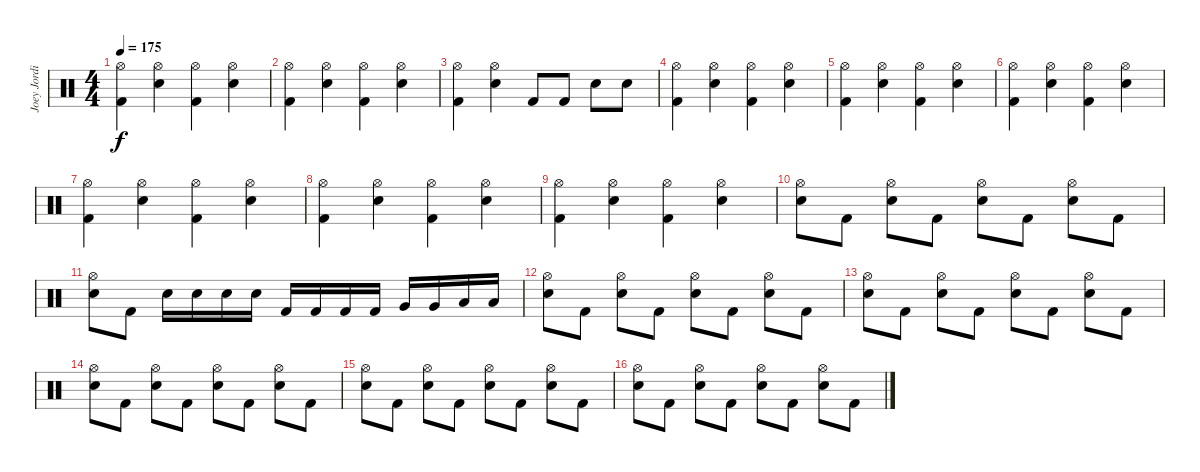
\track ("Joey Jordison (Drums)" "Joey Jordi") {instrument percussion}
\staff {score}
\articulation defaults
\ts (4 4)
\tempo 175
\clef neutral
\ks c
("Hi-Hat (open)" "Kick (hit) 2").4{dy f} ("Hi-Hat (open)" "Electric Snare (hit)").4 ("Hi-Hat (open)" "Kick (hit) 2").4 ("Hi-Hat (open)" "Electric Snare (hit)").4 |
("Hi-Hat (open)" "Kick (hit) 2").4 ("Hi-Hat (open)" "Electric Snare (hit)").4 ("Hi-Hat (open)" "Kick (hit) 2").4 ("Hi-Hat (open)" "Electric Snare (hit)").4 |
("Hi-Hat (open)" "Kick (hit) 2").4 ("Hi-Hat (open)" "Electric Snare (hit)").4 "Kick (hit) 2".8 "Kick (hit) 2".8 "Electric Snare (hit)".8 "Electric Snare (hit)".8 |
("Hi-Hat (open)" "Kick (hit) 2").4 ("Hi-Hat (open)" "Electric Snare (hit)").4 ("Hi-Hat (open)" "Kick (hit) 2").4 ("Hi-Hat (open)" "Electric Snare (hit)").4 |
("Hi-Hat (open)" "Kick (hit) 2").4 ("Hi-Hat (open)" "Electric Snare (hit)").4 ("Hi-Hat (open)" "Kick (hit) 2").4 ("Hi-Hat (open)" "Electric Snare (hit)").4 |
("Hi-Hat (open)" "Kick (hit) 2").4 ("Hi-Hat (open)" "Electric Snare (hit)").4 ("Hi-Hat (open)" "Kick (hit) 2").4 ("Hi-Hat (open)" "Electric Snare (hit)").4 |
("Hi-Hat (open)" "Kick (hit) 2").4 ("Hi-Hat (open)" "Electric Snare (hit)").4 ("Hi-Hat (open)" "Kick (hit) 2").4 ("Hi-Hat (open)" "Electric Snare (hit)").4 |
("Hi-Hat (open)" "Kick (hit) 2").4 ("Hi-Hat (open)" "Electric Snare (hit)").4 ("Hi-Hat (open)" "Kick (hit) 2").4 ("Hi-Hat (open)" "Electric Snare (hit)").4 |
("Hi-Hat (open)" "Kick (hit) 2").4 ("Hi-Hat (open)" "Electric Snare (hit)").4 ("Hi-Hat (open)" "Kick (hit) 2").4 ("Hi-Hat (open)" "Electric Snare (hit)").4 |
("Hi-Hat (open)" "Electric Snare (hit)").8 "Kick (hit) 2".8 ("Hi-Hat (open)" "Electric Snare (hit)").8 "Kick (hit) 2".8 ("Hi-Hat (open)" "Electric Snare (hit)").8 "Kick (hit) 2".8 ("Hi-Hat (open)" "Electric Snare (hit)").8 "Kick (hit) 2".8 |
("Hi-Hat (open)" "Electric Snare (hit)").8 "Kick (hit) 2".8 "Electric Snare (hit)".16 "Electric Snare (hit)".16 "Electric Snare (hit)".16 "Electric Snare (hit)".16 "Kick (hit) 2".16 "Kick (hit) 2".16 "Kick (hit) 2".16 "Kick (hit) 2".16 "Very Low Tom (hit)".16 "Very Low Tom (hit)".16 "Low Floor Tom (hit)".16 "Low Floor Tom (hit)".16 |
("Hi-Hat (open)" "Electric Snare (hit)").8 "Kick (hit) 2".8 ("Hi-Hat (open)" "Electric Snare (hit)").8 "Kick (hit) 2".8 ("Hi-Hat (open)" "Electric Snare (hit)").8 "Kick (hit) 2".8 ("Hi-Hat (open)" "Electric Snare (hit)").8 "Kick (hit) 2".8 |
("Hi-Hat (open)" "Electric Snare (hit)").8 "Kick (hit) 2".8 ("Hi-Hat (open)" "Electric Snare (hit)").8 "Kick (hit) 2".8 ("Hi-Hat (open)" "Electric Snare (hit)").8 "Kick (hit) 2".8 ("Hi-Hat (open)" "Electric Snare (hit)").8 "Kick (hit) 2".8 |
("Hi-Hat (open)" "Electric Snare (hit)").8 "Kick (hit) 2".8 ("Hi-Hat (open)" "Electric Snare (hit)").8 "Kick (hit) 2".8 ("Hi-Hat (open)" "Electric Snare (hit)").8 "Kick (hit) 2".8 ("Hi-Hat (open)" "Electric Snare (hit)").8 "Kick (hit) 2".8 |
("Hi-Hat (open)" "Electric Snare (hit)").8 "Kick (hit) 2".8 ("Hi-Hat (open)" "Electric Snare (hit)").8 "Kick (hit) 2".8 ("Hi-Hat (open)" "Electric Snare (hit)").8 "Kick (hit) 2".8 ("Hi-Hat (open)" "Electric Snare (hit)").8 "Kick (hit) 2".8 |
("Hi-Hat (open)" "Electric Snare (hit)").8 "Kick (hit) 2".8 ("Hi-Hat (open)" "Electric Snare (hit)").8 "Kick (hit) 2".8 ("Hi-Hat (open)" "Electric Snare (hit)").8 "Kick (hit) 2".8 ("Hi-Hat (open)" "Electric Snare (hit)").8 "Kick (hit) 2".8
